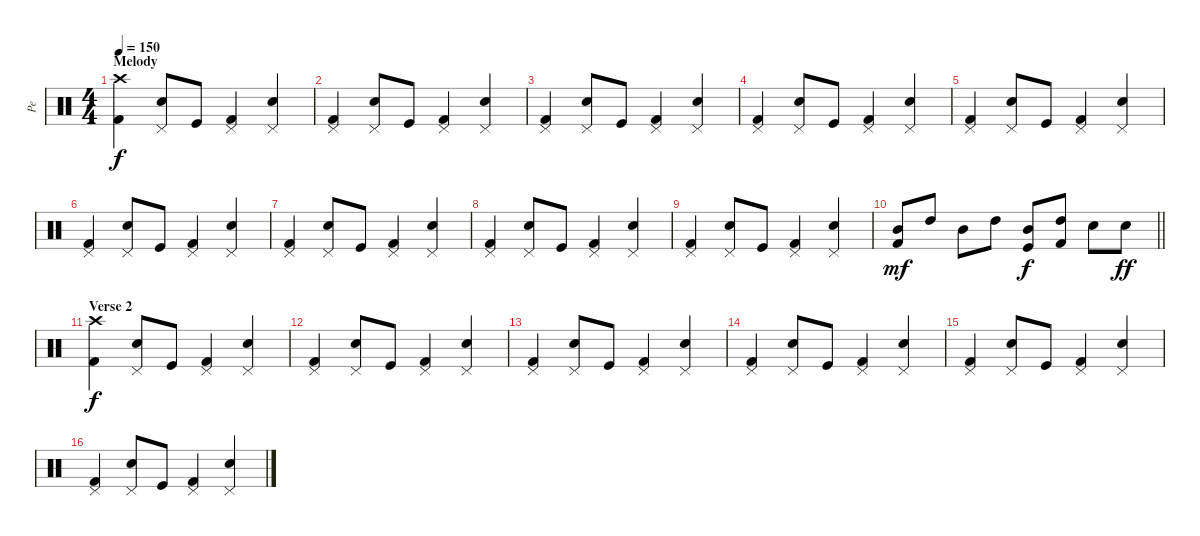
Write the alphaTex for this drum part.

\track ("Pe" "Pe") {instrument percussion}
\staff {score}
\articulation defaults
\ts (4 4)
\section ("" "Melody")
\tempo 150
\clef neutral
\ks c
("Kick (hit) 2" "Crash high (hit)").4{dy f} ("Electric Snare (hit)" "Pedal Hi-Hat (hit)").8 "Kick (hit)".8 ("Kick (hit) 2" "Pedal Hi-Hat (hit)").4 ("Electric Snare (hit)" "Pedal Hi-Hat (hit)").4 |
("Kick (hit) 2" "Pedal Hi-Hat (hit)").4 ("Electric Snare (hit)" "Pedal Hi-Hat (hit)").8 "Kick (hit)".8 ("Kick (hit) 2" "Pedal Hi-Hat (hit)").4 ("Electric Snare (hit)" "Pedal Hi-Hat (hit)").4 |
("Kick (hit) 2" "Pedal Hi-Hat (hit)").4 ("Electric Snare (hit)" "Pedal Hi-Hat (hit)").8 "Kick (hit)".8 ("Kick (hit) 2" "Pedal Hi-Hat (hit)").4 ("Electric Snare (hit)" "Pedal Hi-Hat (hit)").4 |
("Kick (hit) 2" "Pedal Hi-Hat (hit)").4 ("Electric Snare (hit)" "Pedal Hi-Hat (hit)").8 "Kick (hit)".8 ("Kick (hit) 2" "Pedal Hi-Hat (hit)").4 ("Electric Snare (hit)" "Pedal Hi-Hat (hit)").4 |
("Kick (hit) 2" "Pedal Hi-Hat (hit)").4 ("Electric Snare (hit)" "Pedal Hi-Hat (hit)").8 "Kick (hit)".8 ("Kick (hit) 2" "Pedal Hi-Hat (hit)").4 ("Electric Snare (hit)" "Pedal Hi-Hat (hit)").4 |
("Kick (hit) 2" "Pedal Hi-Hat (hit)").4 ("Electric Snare (hit)" "Pedal Hi-Hat (hit)").8 "Kick (hit)".8 ("Kick (hit) 2" "Pedal Hi-Hat (hit)").4 ("Electric Snare (hit)" "Pedal Hi-Hat (hit)").4 |
("Kick (hit) 2" "Pedal Hi-Hat (hit)").4 ("Electric Snare (hit)" "Pedal Hi-Hat (hit)").8 "Kick (hit)".8 ("Kick (hit) 2" "Pedal Hi-Hat (hit)").4 ("Electric Snare (hit)" "Pedal Hi-Hat (hit)").4 |
("Kick (hit) 2" "Pedal Hi-Hat (hit)").4 ("Electric Snare (hit)" "Pedal Hi-Hat (hit)").8 "Kick (hit)".8 ("Kick (hit) 2" "Pedal Hi-Hat (hit)").4 ("Electric Snare (hit)" "Pedal Hi-Hat (hit)").4 |
("Kick (hit) 2" "Pedal Hi-Hat (hit)").4 ("Electric Snare (hit)" "Pedal Hi-Hat (hit)").8 "Kick (hit)".8 ("Kick (hit) 2" "Pedal Hi-Hat (hit)").4 ("Electric Snare (hit)" "Pedal Hi-Hat (hit)").4 |
\barLineRight lightlight
("Kick (hit) 2" "Mid Tom (hit)").8{dy mf} "High Tom (hit)".8 "Mid Tom (hit)".8 "High Tom (hit)".8 ("Kick (hit)" "Mid Tom (hit)").8{dy f} ("Kick (hit) 2" "High Tom (hit)").8 "Electric Snare (hit)".8 "Electric Snare (hit)".8{dy ff} |
\section ("" "Verse 2")
("Kick (hit) 2" "Crash high (hit)").4{dy f} ("Electric Snare (hit)" "Pedal Hi-Hat (hit)").8 "Kick (hit)".8 ("Kick (hit) 2" "Pedal Hi-Hat (hit)").4 ("Electric Snare (hit)" "Pedal Hi-Hat (hit)").4 |
("Kick (hit) 2" "Pedal Hi-Hat (hit)").4 ("Electric Snare (hit)" "Pedal Hi-Hat (hit)").8 "Kick (hit)".8 ("Kick (hit) 2" "Pedal Hi-Hat (hit)").4 ("Electric Snare (hit)" "Pedal Hi-Hat (hit)").4 |
("Kick (hit) 2" "Pedal Hi-Hat (hit)").4 ("Electric Snare (hit)" "Pedal Hi-Hat (hit)").8 "Kick (hit)".8 ("Kick (hit) 2" "Pedal Hi-Hat (hit)").4 ("Electric Snare (hit)" "Pedal Hi-Hat (hit)").4 |
("Kick (hit) 2" "Pedal Hi-Hat (hit)").4 ("Electric Snare (hit)" "Pedal Hi-Hat (hit)").8 "Kick (hit)".8 ("Kick (hit) 2" "Pedal Hi-Hat (hit)").4 ("Electric Snare (hit)" "Pedal Hi-Hat (hit)").4 |
("Kick (hit) 2" "Pedal Hi-Hat (hit)").4 ("Electric Snare (hit)" "Pedal Hi-Hat (hit)").8 "Kick (hit)".8 ("Kick (hit) 2" "Pedal Hi-Hat (hit)").4 ("Electric Snare (hit)" "Pedal Hi-Hat (hit)").4 |
("Kick (hit) 2" "Pedal Hi-Hat (hit)").4 ("Electric Snare (hit)" "Pedal Hi-Hat (hit)").8 "Kick (hit)".8 ("Kick (hit) 2" "Pedal Hi-Hat (hit)").4 ("Electric Snare (hit)" "Pedal Hi-Hat (hit)").4
